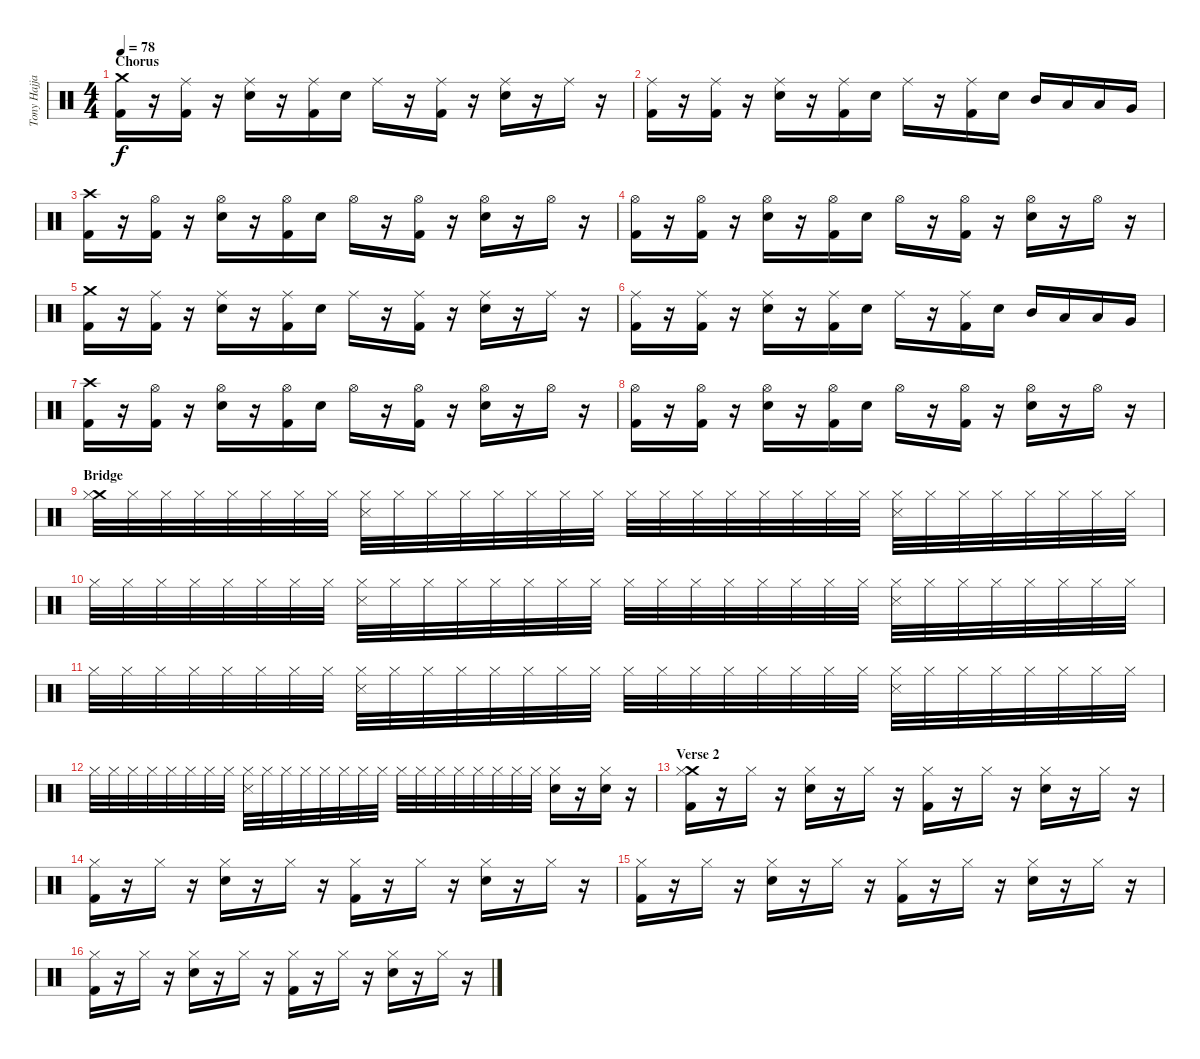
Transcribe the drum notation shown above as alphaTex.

\track ("Tony Hajjar" "Tony Hajja") {instrument percussion}
\staff {score}
\articulation defaults
\ts (4 4)
\section ("" "Chorus")
\tempo 78
\clef neutral
\ks c
("Crash medium (hit)" "Kick (hit) 2").16{dy f} r.16 ("Ride (middle)" "Kick (hit) 2").16 r.16 ("Ride (middle)" "Electric Snare (hit)").16 r.16 ("Ride (middle)" "Kick (hit) 2").16 "Electric Snare (hit)".16 "Ride (middle)".16 r.16 ("Ride (middle)" "Kick (hit) 2").16 r.16 ("Ride (middle)" "Electric Snare (hit)").16 r.16 "Ride (middle)".16 r.16 |
("Ride (middle)" "Kick (hit) 2").16 r.16 ("Ride (middle)" "Kick (hit) 2").16 r.16 ("Ride (middle)" "Electric Snare (hit)").16 r.16 ("Ride (middle)" "Kick (hit) 2").16 "Electric Snare (hit)".16 "Ride (middle)".16 r.16 ("Ride (middle)" "Kick (hit) 2").16 "Electric Snare (hit)".16 "Mid Tom (hit)".16 "Low Tom (hit)".16 "Low Tom (hit)".16 "Very Low Tom (hit)".16 |
("Crash high (hit)" "Kick (hit) 2").16 r.16 ("Hi-Hat (open)" "Kick (hit) 2").16 r.16 ("Hi-Hat (open)" "Electric Snare (hit)").16 r.16 ("Hi-Hat (open)" "Kick (hit) 2").16 "Electric Snare (hit)".16 "Hi-Hat (open)".16 r.16 ("Hi-Hat (open)" "Kick (hit) 2").16 r.16 ("Hi-Hat (open)" "Electric Snare (hit)").16 r.16 "Hi-Hat (open)".16 r.16 |
("Hi-Hat (open)" "Kick (hit) 2").16 r.16 ("Hi-Hat (open)" "Kick (hit) 2").16 r.16 ("Hi-Hat (open)" "Electric Snare (hit)").16 r.16 ("Hi-Hat (open)" "Kick (hit) 2").16 "Electric Snare (hit)".16 "Hi-Hat (open)".16 r.16 ("Hi-Hat (open)" "Kick (hit) 2").16 r.16 ("Hi-Hat (open)" "Electric Snare (hit)").16 r.16 "Hi-Hat (open)".16 r.16 |
("Crash medium (hit)" "Kick (hit) 2").16 r.16 ("Ride (middle)" "Kick (hit) 2").16 r.16 ("Ride (middle)" "Electric Snare (hit)").16 r.16 ("Ride (middle)" "Kick (hit) 2").16 "Electric Snare (hit)".16 "Ride (middle)".16 r.16 ("Ride (middle)" "Kick (hit) 2").16 r.16 ("Ride (middle)" "Electric Snare (hit)").16 r.16 "Ride (middle)".16 r.16 |
("Ride (middle)" "Kick (hit) 2").16 r.16 ("Ride (middle)" "Kick (hit) 2").16 r.16 ("Ride (middle)" "Electric Snare (hit)").16 r.16 ("Ride (middle)" "Kick (hit) 2").16 "Electric Snare (hit)".16 "Ride (middle)".16 r.16 ("Ride (middle)" "Kick (hit) 2").16 "Electric Snare (hit)".16 "Mid Tom (hit)".16 "Low Tom (hit)".16 "Low Tom (hit)".16 "Very Low Tom (hit)".16 |
("Crash high (hit)" "Kick (hit) 2").16 r.16 ("Hi-Hat (open)" "Kick (hit) 2").16 r.16 ("Hi-Hat (open)" "Electric Snare (hit)").16 r.16 ("Hi-Hat (open)" "Kick (hit) 2").16 "Electric Snare (hit)".16 "Hi-Hat (open)".16 r.16 ("Hi-Hat (open)" "Kick (hit) 2").16 r.16 ("Hi-Hat (open)" "Electric Snare (hit)").16 r.16 "Hi-Hat (open)".16 r.16 |
("Hi-Hat (open)" "Kick (hit) 2").16 r.16 ("Hi-Hat (open)" "Kick (hit) 2").16 r.16 ("Hi-Hat (open)" "Electric Snare (hit)").16 r.16 ("Hi-Hat (open)" "Kick (hit) 2").16 "Electric Snare (hit)".16 "Hi-Hat (open)".16 r.16 ("Hi-Hat (open)" "Kick (hit) 2").16 r.16 ("Hi-Hat (open)" "Electric Snare (hit)").16 r.16 "Hi-Hat (open)".16 r.16 |
\section ("" "Bridge")
("Crash medium (hit)" "Hi-Hat (closed)").32 "Hi-Hat (closed)".32 "Hi-Hat (closed)".32 "Hi-Hat (closed)".32 "Hi-Hat (closed)".32 "Hi-Hat (closed)".32 "Hi-Hat (closed)".32 "Hi-Hat (closed)".32 ("Hi-Hat (closed)" "Snare (side stick) 3").32 "Hi-Hat (closed)".32 "Hi-Hat (closed)".32 "Hi-Hat (closed)".32 "Hi-Hat (closed)".32 "Hi-Hat (closed)".32 "Hi-Hat (closed)".32 "Hi-Hat (closed)".32 "Hi-Hat (closed)".32 "Hi-Hat (closed)".32 "Hi-Hat (closed)".32 "Hi-Hat (closed)".32 "Hi-Hat (closed)".32 "Hi-Hat (closed)".32 "Hi-Hat (closed)".32 "Hi-Hat (closed)".32 ("Hi-Hat (closed)" "Snare (side stick) 3").32 "Hi-Hat (closed)".32 "Hi-Hat (closed)".32 "Hi-Hat (closed)".32 "Hi-Hat (closed)".32 "Hi-Hat (closed)".32 "Hi-Hat (closed)".32 "Hi-Hat (closed)".32 |
"Hi-Hat (closed)".32 "Hi-Hat (closed)".32 "Hi-Hat (closed)".32 "Hi-Hat (closed)".32 "Hi-Hat (closed)".32 "Hi-Hat (closed)".32 "Hi-Hat (closed)".32 "Hi-Hat (closed)".32 ("Hi-Hat (closed)" "Snare (side stick) 3").32 "Hi-Hat (closed)".32 "Hi-Hat (closed)".32 "Hi-Hat (closed)".32 "Hi-Hat (closed)".32 "Hi-Hat (closed)".32 "Hi-Hat (closed)".32 "Hi-Hat (closed)".32 "Hi-Hat (closed)".32 "Hi-Hat (closed)".32 "Hi-Hat (closed)".32 "Hi-Hat (closed)".32 "Hi-Hat (closed)".32 "Hi-Hat (closed)".32 "Hi-Hat (closed)".32 "Hi-Hat (closed)".32 ("Hi-Hat (closed)" "Snare (side stick) 3").32 "Hi-Hat (closed)".32 "Hi-Hat (closed)".32 "Hi-Hat (closed)".32 "Hi-Hat (closed)".32 "Hi-Hat (closed)".32 "Hi-Hat (closed)".32 "Hi-Hat (closed)".32 |
"Hi-Hat (closed)".32 "Hi-Hat (closed)".32 "Hi-Hat (closed)".32 "Hi-Hat (closed)".32 "Hi-Hat (closed)".32 "Hi-Hat (closed)".32 "Hi-Hat (closed)".32 "Hi-Hat (closed)".32 ("Hi-Hat (closed)" "Snare (side stick) 3").32 "Hi-Hat (closed)".32 "Hi-Hat (closed)".32 "Hi-Hat (closed)".32 "Hi-Hat (closed)".32 "Hi-Hat (closed)".32 "Hi-Hat (closed)".32 "Hi-Hat (closed)".32 "Hi-Hat (closed)".32 "Hi-Hat (closed)".32 "Hi-Hat (closed)".32 "Hi-Hat (closed)".32 "Hi-Hat (closed)".32 "Hi-Hat (closed)".32 "Hi-Hat (closed)".32 "Hi-Hat (closed)".32 ("Hi-Hat (closed)" "Snare (side stick) 3").32 "Hi-Hat (closed)".32 "Hi-Hat (closed)".32 "Hi-Hat (closed)".32 "Hi-Hat (closed)".32 "Hi-Hat (closed)".32 "Hi-Hat (closed)".32 "Hi-Hat (closed)".32 |
"Hi-Hat (closed)".32 "Hi-Hat (closed)".32 "Hi-Hat (closed)".32 "Hi-Hat (closed)".32 "Hi-Hat (closed)".32 "Hi-Hat (closed)".32 "Hi-Hat (closed)".32 "Hi-Hat (closed)".32 ("Hi-Hat (closed)" "Snare (side stick) 3").32 "Hi-Hat (closed)".32 "Hi-Hat (closed)".32 "Hi-Hat (closed)".32 "Hi-Hat (closed)".32 "Hi-Hat (closed)".32 "Hi-Hat (closed)".32 "Hi-Hat (closed)".32 "Hi-Hat (closed)".32 "Hi-Hat (closed)".32 "Hi-Hat (closed)".32 "Hi-Hat (closed)".32 "Hi-Hat (closed)".32 "Hi-Hat (closed)".32 "Hi-Hat (closed)".32 "Hi-Hat (closed)".32 ("Hi-Hat (closed)" "Electric Snare (hit)").16 r.16 ("Hi-Hat (closed)" "Electric Snare (hit)").16 r.16 |
\section ("" "Verse 2")
("Crash medium (hit)" "Hi-Hat (closed)" "Kick (hit) 2").16 r.16 "Hi-Hat (closed)".16 r.16 ("Hi-Hat (closed)" "Electric Snare (hit)").16 r.16 "Hi-Hat (closed)".16 r.16 ("Hi-Hat (closed)" "Kick (hit) 2").16 r.16 "Hi-Hat (closed)".16 r.16 ("Hi-Hat (closed)" "Electric Snare (hit)").16 r.16 "Hi-Hat (closed)".16 r.16 |
("Hi-Hat (closed)" "Kick (hit) 2").16 r.16 "Hi-Hat (closed)".16 r.16 ("Hi-Hat (closed)" "Electric Snare (hit)").16 r.16 "Hi-Hat (closed)".16 r.16 ("Hi-Hat (closed)" "Kick (hit) 2").16 r.16 "Hi-Hat (closed)".16 r.16 ("Hi-Hat (closed)" "Electric Snare (hit)").16 r.16 "Hi-Hat (closed)".16 r.16 |
("Hi-Hat (closed)" "Kick (hit) 2").16 r.16 "Hi-Hat (closed)".16 r.16 ("Hi-Hat (closed)" "Electric Snare (hit)").16 r.16 "Hi-Hat (closed)".16 r.16 ("Hi-Hat (closed)" "Kick (hit) 2").16 r.16 "Hi-Hat (closed)".16 r.16 ("Hi-Hat (closed)" "Electric Snare (hit)").16 r.16 "Hi-Hat (closed)".16 r.16 |
("Hi-Hat (closed)" "Kick (hit) 2").16 r.16 "Hi-Hat (closed)".16 r.16 ("Hi-Hat (closed)" "Electric Snare (hit)").16 r.16 "Hi-Hat (closed)".16 r.16 ("Hi-Hat (closed)" "Kick (hit) 2").16 r.16 "Hi-Hat (closed)".16 r.16 ("Hi-Hat (closed)" "Electric Snare (hit)").16 r.16 "Hi-Hat (closed)".16 r.16
